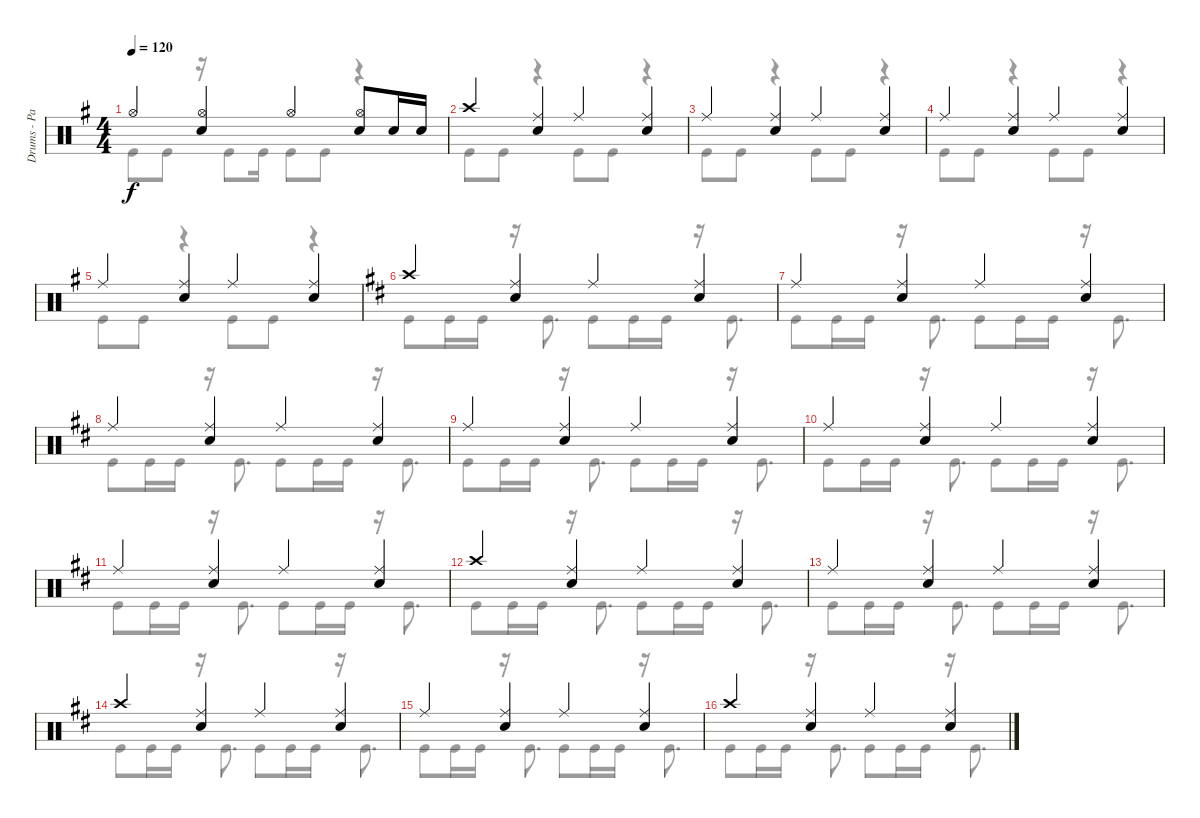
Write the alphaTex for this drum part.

\track ("Drums - Patrick Johansson" "Drums - Pa") {instrument percussion}
\staff {score}
\articulation defaults
\voice
\ts (4 4)
\tempo 120
\clef neutral
\ks eminor "Hi-Hat (open)".4{dy f}
("Hi-Hat (open)" "Snare (hit) 2").4 "Hi-Hat (open)".4 ("Hi-Hat (open)" "Snare (hit) 2").8 "Snare (hit) 2".16 "Snare (hit) 2".16 |
"Crash high (hit)".4 ("Ride (middle)" "Snare (hit) 2").4 "Ride (middle)".4 ("Ride (middle)" "Snare (hit) 2").4 |
"Ride (middle)".4 ("Ride (middle)" "Snare (hit) 2").4 "Ride (middle)".4 ("Ride (middle)" "Snare (hit) 2").4 |
"Ride (middle)".4 ("Ride (middle)" "Snare (hit) 2").4 "Ride (middle)".4 ("Ride (middle)" "Snare (hit) 2").4 |
"Ride (middle)".4 ("Ride (middle)" "Snare (hit) 2").4 "Ride (middle)".4 ("Ride (middle)" "Snare (hit) 2").4 |
\ks bminor "Crash high (hit)".4
("Ride (middle)" "Snare (hit) 2").4 "Ride (middle)".4 ("Ride (middle)" "Snare (hit) 2").4 |
"Ride (middle)".4 ("Ride (middle)" "Snare (hit) 2").4 "Ride (middle)".4 ("Ride (middle)" "Snare (hit) 2").4 |
"Ride (middle)".4 ("Ride (middle)" "Snare (hit) 2").4 "Ride (middle)".4 ("Ride (middle)" "Snare (hit) 2").4 |
"Ride (middle)".4 ("Ride (middle)" "Snare (hit) 2").4 "Ride (middle)".4 ("Ride (middle)" "Snare (hit) 2").4 |
"Ride (middle)".4 ("Ride (middle)" "Snare (hit) 2").4 "Ride (middle)".4 ("Ride (middle)" "Snare (hit) 2").4 |
"Ride (middle)".4 ("Ride (middle)" "Snare (hit) 2").4 "Ride (middle)".4 ("Ride (middle)" "Snare (hit) 2").4 |
"Crash high (hit)".4 ("Ride (middle)" "Snare (hit) 2").4 "Ride (middle)".4 ("Ride (middle)" "Snare (hit) 2").4 |
"Ride (middle)".4 ("Ride (middle)" "Snare (hit) 2").4 "Ride (middle)".4 ("Ride (middle)" "Snare (hit) 2").4 |
"Crash high (hit)".4 ("Ride (middle)" "Snare (hit) 2").4 "Ride (middle)".4 ("Ride (middle)" "Snare (hit) 2").4 |
"Ride (middle)".4 ("Ride (middle)" "Snare (hit) 2").4 "Ride (middle)".4 ("Ride (middle)" "Snare (hit) 2").4 |
"Crash high (hit)".4 ("Ride (middle)" "Snare (hit) 2").4 "Ride (middle)".4 ("Ride (middle)" "Snare (hit) 2").4
\voice
\clef neutral
\ottava regular
\simile none
\ks eminor "Kick (hit)".8{dy f} "Kick (hit)".8
r.16 "Kick (hit)".8 "Kick (hit)".16 "Kick (hit)".8 "Kick (hit)".8 r.4 |
"Kick (hit)".8 "Kick (hit)".8 r.4 "Kick (hit)".8 "Kick (hit)".8 r.4 |
"Kick (hit)".8 "Kick (hit)".8 r.4 "Kick (hit)".8 "Kick (hit)".8 r.4 |
"Kick (hit)".8 "Kick (hit)".8 r.4 "Kick (hit)".8 "Kick (hit)".8 r.4 |
"Kick (hit)".8 "Kick (hit)".8 r.4 "Kick (hit)".8 "Kick (hit)".8 r.4 |
\ks bminor "Kick (hit)".8 "Kick (hit)".16 "Kick (hit)".16
r.16 "Kick (hit)".8{d} "Kick (hit)".8 "Kick (hit)".16 "Kick (hit)".16 r.16 "Kick (hit)".8{d} |
"Kick (hit)".8 "Kick (hit)".16 "Kick (hit)".16 r.16 "Kick (hit)".8{d} "Kick (hit)".8 "Kick (hit)".16 "Kick (hit)".16 r.16 "Kick (hit)".8{d} |
"Kick (hit)".8 "Kick (hit)".16 "Kick (hit)".16 r.16 "Kick (hit)".8{d} "Kick (hit)".8 "Kick (hit)".16 "Kick (hit)".16 r.16 "Kick (hit)".8{d} |
"Kick (hit)".8 "Kick (hit)".16 "Kick (hit)".16 r.16 "Kick (hit)".8{d} "Kick (hit)".8 "Kick (hit)".16 "Kick (hit)".16 r.16 "Kick (hit)".8{d} |
"Kick (hit)".8 "Kick (hit)".16 "Kick (hit)".16 r.16 "Kick (hit)".8{d} "Kick (hit)".8 "Kick (hit)".16 "Kick (hit)".16 r.16 "Kick (hit)".8{d} |
"Kick (hit)".8 "Kick (hit)".16 "Kick (hit)".16 r.16 "Kick (hit)".8{d} "Kick (hit)".8 "Kick (hit)".16 "Kick (hit)".16 r.16 "Kick (hit)".8{d} |
"Kick (hit)".8 "Kick (hit)".16 "Kick (hit)".16 r.16 "Kick (hit)".8{d} "Kick (hit)".8 "Kick (hit)".16 "Kick (hit)".16 r.16 "Kick (hit)".8{d} |
"Kick (hit)".8 "Kick (hit)".16 "Kick (hit)".16 r.16 "Kick (hit)".8{d} "Kick (hit)".8 "Kick (hit)".16 "Kick (hit)".16 r.16 "Kick (hit)".8{d} |
"Kick (hit)".8 "Kick (hit)".16 "Kick (hit)".16 r.16 "Kick (hit)".8{d} "Kick (hit)".8 "Kick (hit)".16 "Kick (hit)".16 r.16 "Kick (hit)".8{d} |
"Kick (hit)".8 "Kick (hit)".16 "Kick (hit)".16 r.16 "Kick (hit)".8{d} "Kick (hit)".8 "Kick (hit)".16 "Kick (hit)".16 r.16 "Kick (hit)".8{d} |
"Kick (hit)".8 "Kick (hit)".16 "Kick (hit)".16 r.16 "Kick (hit)".8{d} "Kick (hit)".8 "Kick (hit)".16 "Kick (hit)".16 r.16 "Kick (hit)".8{d}
